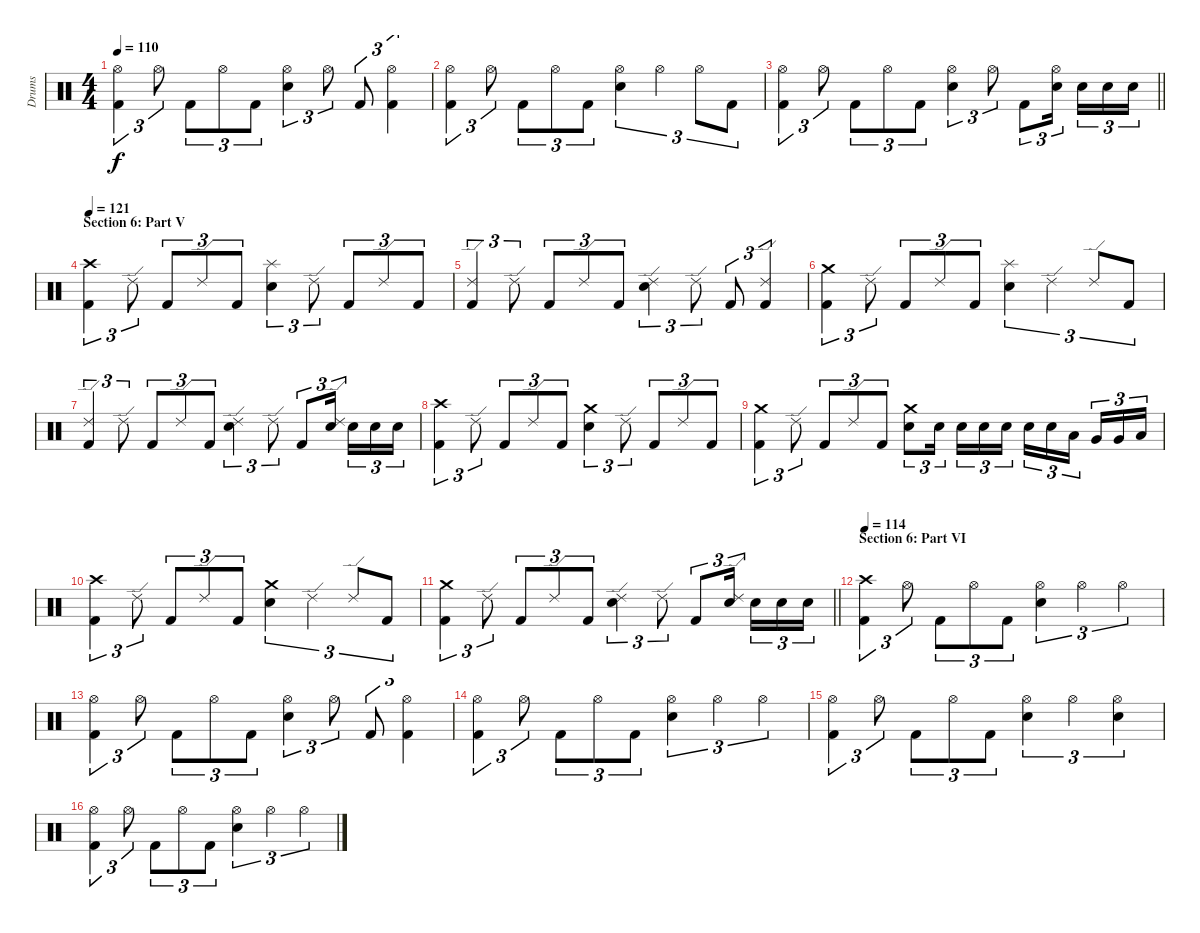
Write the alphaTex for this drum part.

\track ("Drums" "Drums") {instrument percussion}
\staff {score}
\articulation defaults
\ts (4 4)
\tempo 110
\clef neutral
\ks c
("Hi-Hat (open)" "Kick (hit) 2").4{tu (3 2) dy f} "Hi-Hat (open)".8{tu (3 2)} "Kick (hit) 2".8{tu (3 2)} "Hi-Hat (open)".8{tu (3 2)} "Kick (hit) 2".8{tu (3 2)} ("Hi-Hat (open)" "Electric Snare (hit)").4{tu (3 2)} "Hi-Hat (open)".8{tu (3 2)} "Kick (hit) 2".8{tu (3 2)} ("Hi-Hat (open)" "Kick (hit) 2").4{tu (3 2)} |
("Hi-Hat (open)" "Kick (hit) 2").4{tu (3 2)} "Hi-Hat (open)".8{tu (3 2)} "Kick (hit) 2".8{tu (3 2)} "Hi-Hat (open)".8{tu (3 2)} "Kick (hit) 2".8{tu (3 2)} ("Hi-Hat (open)" "Electric Snare (hit)").4{tu (3 2)} "Hi-Hat (open)".4{tu (3 2)} "Hi-Hat (open)".8{tu (3 2)} "Kick (hit) 2".8{tu (3 2)} |
\barLineRight lightlight
("Hi-Hat (open)" "Kick (hit) 2").4{tu (3 2)} "Hi-Hat (open)".8{tu (3 2)} "Kick (hit) 2".8{tu (3 2)} "Hi-Hat (open)".8{tu (3 2)} "Kick (hit) 2".8{tu (3 2)} ("Hi-Hat (open)" "Electric Snare (hit)").4{tu (3 2)} "Hi-Hat (open)".8{tu (3 2)} "Kick (hit) 2".8{tu (3 2)} ("Hi-Hat (open)" "Electric Snare (hit)").16{tu (3 2) beam splitsecondary} "Electric Snare (hit)".16{tu (3 2)} "Electric Snare (hit)".16{tu (3 2)} "Electric Snare (hit)".16{tu (3 2)} |
\section ("" "Section 6: Part V")
\tempo 121
("Crash high (hit)" "Kick (hit) 2").4{tu (3 2) volume 16} "Ride (edge) 2".8{tu (3 2)} "Kick (hit) 2".8{tu (3 2)} "Ride (edge) 2".8{tu (3 2)} "Kick (hit) 2".8{tu (3 2)} ("Splash (hit)" "Electric Snare (hit)").4{tu (3 2)} "Ride (edge) 2".8{tu (3 2)} "Kick (hit) 2".8{tu (3 2)} "Ride (edge) 2".8{tu (3 2)} "Kick (hit) 2".8{tu (3 2)} |
("Ride (edge) 2" "Kick (hit) 2").4{tu (3 2)} "Ride (edge) 2".8{tu (3 2)} "Kick (hit) 2".8{tu (3 2)} "Ride (edge) 2".8{tu (3 2)} "Kick (hit) 2".8{tu (3 2)} ("Ride (edge) 2" "Electric Snare (hit)").4{tu (3 2)} "Ride (edge) 2".8{tu (3 2)} "Kick (hit) 2".8{tu (3 2)} ("Ride (edge) 2" "Kick (hit) 2").4{tu (3 2)} |
("Crash medium (hit)" "Kick (hit) 2").4{tu (3 2)} "Ride (edge) 2".8{tu (3 2)} "Kick (hit) 2".8{tu (3 2)} "Ride (edge) 2".8{tu (3 2)} "Kick (hit) 2".8{tu (3 2)} ("Splash (hit)" "Electric Snare (hit)").4{tu (3 2)} "Ride (edge) 2".4{tu (3 2)} "Ride (edge) 2".8{tu (3 2)} "Kick (hit) 2".8{tu (3 2)} |
("Ride (edge) 2" "Kick (hit) 2").4{tu (3 2)} "Ride (edge) 2".8{tu (3 2)} "Kick (hit) 2".8{tu (3 2)} "Ride (edge) 2".8{tu (3 2)} "Kick (hit) 2".8{tu (3 2)} ("Ride (edge) 2" "Electric Snare (hit)").4{tu (3 2)} "Ride (edge) 2".8{tu (3 2)} "Kick (hit) 2".8{tu (3 2)} ("Ride (edge) 2" "Electric Snare (hit)").16{tu (3 2) beam splitsecondary} "Electric Snare (hit)".16{tu (3 2)} "Electric Snare (hit)".16{tu (3 2)} "Electric Snare (hit)".16{tu (3 2)} |
("Crash high (hit)" "Kick (hit) 2").4{tu (3 2)} "Ride (edge) 2".8{tu (3 2)} "Kick (hit) 2".8{tu (3 2)} "Ride (edge) 2".8{tu (3 2)} "Kick (hit) 2".8{tu (3 2)} ("Crash medium (hit)" "Electric Snare (hit)").4{tu (3 2)} "Ride (edge) 2".8{tu (3 2)} "Kick (hit) 2".8{tu (3 2)} "Ride (edge) 2".8{tu (3 2)} "Kick (hit) 2".8{tu (3 2)} |
("Crash medium (hit)" "Kick (hit) 2").4{tu (3 2)} "Ride (edge) 2".8{tu (3 2)} "Kick (hit) 2".8{tu (3 2)} "Ride (edge) 2".8{tu (3 2)} "Kick (hit) 2".8{tu (3 2)} ("Crash medium (hit)" "Electric Snare (hit)").8{tu (3 2)} "Electric Snare (hit)".16{tu (3 2) beam splitsecondary} "Electric Snare (hit)".16{tu (3 2)} "Electric Snare (hit)".16{tu (3 2)} "Electric Snare (hit)".16{tu (3 2)} "Electric Snare (hit)".16{tu (3 2)} "Electric Snare (hit)".16{tu (3 2)} "Low Tom (hit)".16{tu (3 2) beam splitsecondary} "Very Low Tom (hit)".16{tu (3 2)} "Very Low Tom (hit)".16{tu (3 2)} "Low Floor Tom (hit)".16{tu (3 2)} |
("Crash high (hit)" "Kick (hit) 2").4{tu (3 2)} "Ride (edge) 2".8{tu (3 2)} "Kick (hit) 2".8{tu (3 2)} "Ride (edge) 2".8{tu (3 2)} "Kick (hit) 2".8{tu (3 2)} ("Crash medium (hit)" "Electric Snare (hit)").4{tu (3 2)} "Ride (edge) 2".4{tu (3 2)} "Ride (edge) 2".8{tu (3 2)} "Kick (hit) 2".8{tu (3 2)} |
\barLineRight lightlight
("Crash medium (hit)" "Kick (hit) 2").4{tu (3 2)} "Ride (edge) 2".8{tu (3 2)} "Kick (hit) 2".8{tu (3 2)} "Ride (edge) 2".8{tu (3 2)} "Kick (hit) 2".8{tu (3 2)} ("Ride (edge) 2" "Electric Snare (hit)").4{tu (3 2)} "Ride (edge) 2".8{tu (3 2)} "Kick (hit) 2".8{tu (3 2)} ("Ride (edge) 2" "Electric Snare (hit)").16{tu (3 2) beam splitsecondary} "Electric Snare (hit)".16{tu (3 2)} "Electric Snare (hit)".16{tu (3 2)} "Electric Snare (hit)".16{tu (3 2)} |
\section ("" "Section 6: Part VI")
\tempo 114
("Crash high (hit)" "Kick (hit) 2").4{tu (3 2)} "Hi-Hat (open)".8{tu (3 2)} "Kick (hit) 2".8{tu (3 2)} "Hi-Hat (open)".8{tu (3 2)} "Kick (hit) 2".8{tu (3 2)} ("Hi-Hat (open)" "Electric Snare (hit)").4{tu (3 2)} "Hi-Hat (open)".4{tu (3 2)} "Hi-Hat (open)".4{tu (3 2)} |
("Hi-Hat (open)" "Kick (hit) 2").4{tu (3 2)} "Hi-Hat (open)".8{tu (3 2)} "Kick (hit) 2".8{tu (3 2)} "Hi-Hat (open)".8{tu (3 2)} "Kick (hit) 2".8{tu (3 2)} ("Hi-Hat (open)" "Electric Snare (hit)").4{tu (3 2)} "Hi-Hat (open)".8{tu (3 2)} "Kick (hit) 2".8{tu (3 2)} ("Hi-Hat (open)" "Kick (hit) 2").4{tu (3 2)} |
("Hi-Hat (open)" "Kick (hit) 2").4{tu (3 2)} "Hi-Hat (open)".8{tu (3 2)} "Kick (hit) 2".8{tu (3 2)} "Hi-Hat (open)".8{tu (3 2)} "Kick (hit) 2".8{tu (3 2)} ("Hi-Hat (open)" "Electric Snare (hit)").4{tu (3 2)} "Hi-Hat (open)".4{tu (3 2)} "Hi-Hat (open)".4{tu (3 2)} |
("Hi-Hat (open)" "Kick (hit) 2").4{tu (3 2)} "Hi-Hat (open)".8{tu (3 2)} "Kick (hit) 2".8{tu (3 2)} "Hi-Hat (open)".8{tu (3 2)} "Kick (hit) 2".8{tu (3 2)} ("Hi-Hat (open)" "Electric Snare (hit)").4{tu (3 2)} "Hi-Hat (open)".4{tu (3 2)} ("Hi-Hat (open)" "Electric Snare (hit)").4{tu (3 2)} |
("Hi-Hat (open)" "Kick (hit) 2").4{tu (3 2)} "Hi-Hat (open)".8{tu (3 2)} "Kick (hit) 2".8{tu (3 2)} "Hi-Hat (open)".8{tu (3 2)} "Kick (hit) 2".8{tu (3 2)} ("Hi-Hat (open)" "Electric Snare (hit)").4{tu (3 2)} "Hi-Hat (open)".4{tu (3 2)} "Hi-Hat (open)".4{tu (3 2)}
